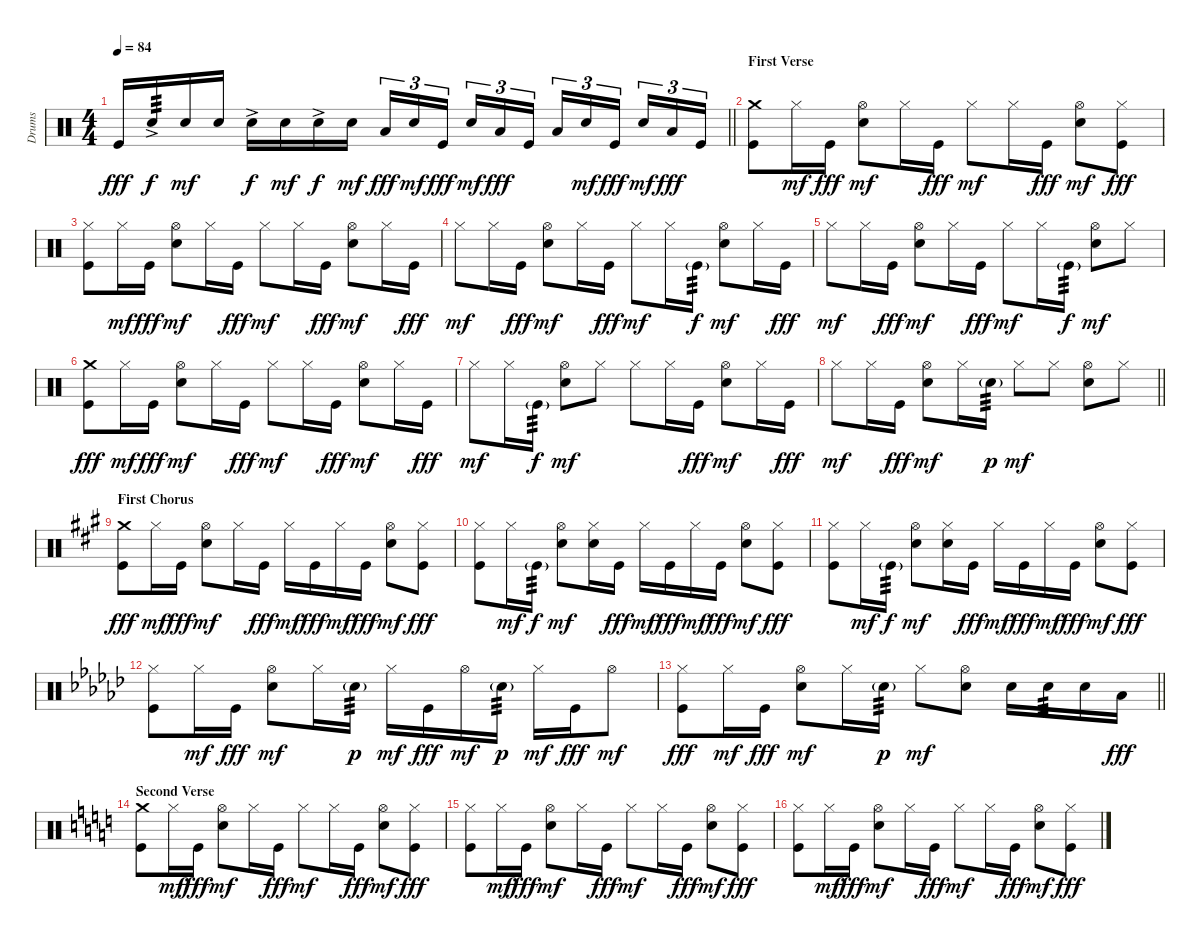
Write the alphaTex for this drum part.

\track ("Drums" "Drums") {instrument percussion}
\staff {score}
\articulation defaults
\ts (4 4)
\tempo 84
\clef neutral
\barLineRight lightlight
\ks c "Kick (hit)".16{dy fff} "Electric Snare (hit)"{ac}.16{tp 3 dy f} "Electric Snare (hit)".16{dy mf} "Electric Snare (hit)".16 "Electric Snare (hit)"{ac}.16{dy f} "Electric Snare (hit)".16{dy mf} "Electric Snare (hit)"{ac}.16{dy f} "Electric Snare (hit)".16{dy mf} "Low Tom (hit)".16{tu (3 2) dy fff} "Electric Snare (hit)".16{tu (3 2) dy mf} "Kick (hit)".16{tu (3 2) dy fff beam splitsecondary} "Electric Snare (hit)".16{tu (3 2) dy mf} "Low Tom (hit)".16{tu (3 2) dy fff} "Kick (hit)".16{tu (3 2)} "Low Tom (hit)".16{tu (3 2)} "Electric Snare (hit)".16{tu (3 2) dy mf} "Kick (hit)".16{tu (3 2) dy fff beam splitsecondary} "Electric Snare (hit)".16{tu (3 2) dy mf} "Low Tom (hit)".16{tu (3 2) dy fff} "Kick (hit)".16{tu (3 2)}
|
\section ("" "First Verse")
("Crash medium (hit)" "Kick (hit)").8 "Hi-Hat (closed)".16{dy mf} "Kick (hit)".16{dy fff} ("Hi-Hat (open)" "Electric Snare (hit)").8{dy mf} "Hi-Hat (closed)".16 "Kick (hit)".16{dy fff} "Hi-Hat (closed)".8{dy mf} "Hi-Hat (closed)".16 "Kick (hit)".16{dy fff} ("Hi-Hat (open)" "Electric Snare (hit)").8{dy mf} ("Hi-Hat (closed)" "Kick (hit)").8{dy fff} |
("Hi-Hat (closed)" "Kick (hit)").8 "Hi-Hat (closed)".16{dy mf} "Kick (hit)".16{dy fff} ("Hi-Hat (open)" "Electric Snare (hit)").8{dy mf} "Hi-Hat (closed)".16 "Kick (hit)".16{dy fff} "Hi-Hat (closed)".8{dy mf} "Hi-Hat (closed)".16 "Kick (hit)".16{dy fff} ("Hi-Hat (open)" "Electric Snare (hit)").8{dy mf} "Hi-Hat (closed)".16 "Kick (hit)".16{dy fff} |
"Hi-Hat (closed)".8{dy mf} "Hi-Hat (closed)".16 "Kick (hit)".16{dy fff} ("Hi-Hat (open)" "Electric Snare (hit)").8{dy mf} "Hi-Hat (closed)".16 "Kick (hit)".16{dy fff} "Hi-Hat (closed)".8{dy mf} "Hi-Hat (closed)".16 "Kick (hit)"{g}.16{tp 3 dy f} ("Hi-Hat (open)" "Electric Snare (hit)").8{dy mf} "Hi-Hat (closed)".16 "Kick (hit)".16{dy fff} |
"Hi-Hat (closed)".8{dy mf} "Hi-Hat (closed)".16 "Kick (hit)".16{dy fff} ("Hi-Hat (open)" "Electric Snare (hit)").8{dy mf} "Hi-Hat (closed)".16 "Kick (hit)".16{dy fff} "Hi-Hat (closed)".8{dy mf} "Hi-Hat (closed)".16 "Kick (hit)"{g}.16{tp 3 dy f} ("Hi-Hat (open)" "Electric Snare (hit)").8{dy mf} "Hi-Hat (closed)".8 |
("Crash medium (hit)" "Kick (hit)").8{dy fff} "Hi-Hat (closed)".16{dy mf} "Kick (hit)".16{dy fff} ("Hi-Hat (open)" "Electric Snare (hit)").8{dy mf} "Hi-Hat (closed)".16 "Kick (hit)".16{dy fff} "Hi-Hat (closed)".8{dy mf} "Hi-Hat (closed)".16 "Kick (hit)".16{dy fff} ("Hi-Hat (open)" "Electric Snare (hit)").8{dy mf} "Hi-Hat (closed)".16 "Kick (hit)".16{dy fff} |
"Hi-Hat (closed)".8{dy mf} "Hi-Hat (closed)".16 "Kick (hit)"{g}.16{tp 3 dy f} ("Hi-Hat (open)" "Electric Snare (hit)").8{dy mf} "Hi-Hat (closed)".8 "Hi-Hat (closed)".8 "Hi-Hat (closed)".16 "Kick (hit)".16{dy fff} ("Hi-Hat (open)" "Electric Snare (hit)").8{dy mf} "Hi-Hat (closed)".16 "Kick (hit)".16{dy fff} |
\barLineRight lightlight "Hi-Hat (closed)".8{dy mf} "Hi-Hat (closed)".16 "Kick (hit)".16{dy fff}
("Hi-Hat (open)" "Electric Snare (hit)").8{dy mf} "Hi-Hat (closed)".16 "Electric Snare (hit)"{g}.16{tp 3 dy p} "Hi-Hat (closed)".8{dy mf} "Hi-Hat (closed)".8 ("Hi-Hat (open)" "Electric Snare (hit)").8 "Hi-Hat (closed)".8 |
\section ("" "First Chorus")
\ks a
("Crash medium (hit)" "Kick (hit)").8{dy fff} "Hi-Hat (closed)".16{dy mf} "Kick (hit)".16{dy fff} ("Hi-Hat (open)" "Electric Snare (hit)").8{dy mf} "Hi-Hat (closed)".16 "Kick (hit)".16{dy fff} "Hi-Hat (closed)".16{dy mf} "Kick (hit)".16{dy fff} "Hi-Hat (closed)".16{dy mf} "Kick (hit)".16{dy fff} ("Hi-Hat (open)" "Electric Snare (hit)").8{dy mf} ("Hi-Hat (closed)" "Kick (hit)").8{dy fff} |
("Hi-Hat (closed)" "Kick (hit)").8 "Hi-Hat (closed)".16{dy mf} "Kick (hit)"{g}.16{tp 3 dy f} ("Hi-Hat (open)" "Electric Snare (hit)").8{dy mf} ("Hi-Hat (closed)" "Electric Snare (hit)").16 "Kick (hit)".16{dy fff} "Hi-Hat (closed)".16{dy mf} "Kick (hit)".16{dy fff} "Hi-Hat (closed)".16{dy mf} "Kick (hit)".16{dy fff} ("Hi-Hat (open)" "Electric Snare (hit)").8{dy mf} ("Hi-Hat (closed)" "Kick (hit)").8{dy fff} |
("Hi-Hat (closed)" "Kick (hit)").8 "Hi-Hat (closed)".16{dy mf} "Kick (hit)"{g}.16{tp 3 dy f} ("Hi-Hat (open)" "Electric Snare (hit)").8{dy mf} ("Hi-Hat (closed)" "Electric Snare (hit)").16 "Kick (hit)".16{dy fff} "Hi-Hat (closed)".16{dy mf} "Kick (hit)".16{dy fff} "Hi-Hat (closed)".16{dy mf} "Kick (hit)".16{dy fff} ("Hi-Hat (open)" "Electric Snare (hit)").8{dy mf} ("Hi-Hat (closed)" "Kick (hit)").8{dy fff} |
\ks gb
("Hi-Hat (closed)" "Kick (hit)").8 "Hi-Hat (closed)".16{dy mf} "Kick (hit)".16{dy fff} ("Hi-Hat (open)" "Electric Snare (hit)").8{dy mf} "Hi-Hat (closed)".16 "Electric Snare (hit)"{g}.16{tp 3 dy p} "Hi-Hat (closed)".16{dy mf} "Kick (hit)".16{dy fff} "Hi-Hat (open)".16{dy mf} "Electric Snare (hit)"{g}.16{tp 3 dy p} "Hi-Hat (closed)".16{dy mf} "Kick (hit)".16{dy fff} "Hi-Hat (open)".8{dy mf} |
\barLineRight lightlight
("Hi-Hat (closed)" "Kick (hit)").8{dy fff} "Hi-Hat (closed)".16{dy mf} "Kick (hit)".16{dy fff} ("Hi-Hat (open)" "Electric Snare (hit)").8{dy mf} "Hi-Hat (closed)".16 "Electric Snare (hit)"{g}.16{tp 3 dy p} "Hi-Hat (closed)".8{dy mf} ("Hi-Hat (open)" "Electric Snare (hit)").8 "Electric Snare (hit)".16 "Electric Snare (hit)".16{tp 3} "Electric Snare (hit)".16 "Low Tom (hit)".16{dy fff} |
\section ("" "Second Verse")
\ks c
("Crash medium (hit)" "Kick (hit)").8 "Hi-Hat (closed)".16{dy mf} "Kick (hit)".16{dy fff} ("Hi-Hat (open)" "Electric Snare (hit)").8{dy mf} "Hi-Hat (closed)".16 "Kick (hit)".16{dy fff} "Hi-Hat (closed)".8{dy mf} "Hi-Hat (closed)".16 "Kick (hit)".16{dy fff} ("Hi-Hat (open)" "Electric Snare (hit)").8{dy mf} ("Hi-Hat (closed)" "Kick (hit)").8{dy fff} |
("Hi-Hat (closed)" "Kick (hit)").8 "Hi-Hat (closed)".16{dy mf} "Kick (hit)".16{dy fff} ("Hi-Hat (open)" "Electric Snare (hit)").8{dy mf} "Hi-Hat (closed)".16 "Kick (hit)".16{dy fff} "Hi-Hat (closed)".8{dy mf} "Hi-Hat (closed)".16 "Kick (hit)".16{dy fff} ("Hi-Hat (open)" "Electric Snare (hit)").8{dy mf} ("Hi-Hat (closed)" "Kick (hit)").8{dy fff} |
("Hi-Hat (closed)" "Kick (hit)").8 "Hi-Hat (closed)".16{dy mf} "Kick (hit)".16{dy fff} ("Hi-Hat (open)" "Electric Snare (hit)").8{dy mf} "Hi-Hat (closed)".16 "Kick (hit)".16{dy fff} "Hi-Hat (closed)".8{dy mf} "Hi-Hat (closed)".16 "Kick (hit)".16{dy fff} ("Hi-Hat (open)" "Electric Snare (hit)").8{dy mf} ("Hi-Hat (closed)" "Kick (hit)").8{dy fff}
